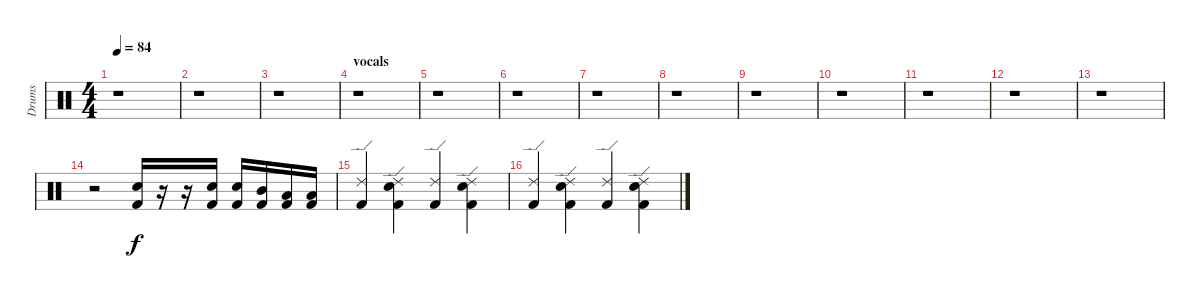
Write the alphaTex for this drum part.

\track ("Drums" "Drums") {instrument percussion}
\staff {score}
\articulation defaults
\ts (4 4)
\tempo 84
\clef neutral
\ks c
r.1{dy f} |
r.1 |
r.1 |
\section ("" "vocals")
r.1 |
r.1 |
r.1 |
r.1 |
r.1 |
r.1 |
r.1 |
r.1 |
r.1 |
r.1 |
r.2 ("Electric Snare (hit)" "Kick (hit) 2").16 r.16 r.16 ("Electric Snare (hit)" "Kick (hit) 2").16 ("Electric Snare (hit)" "Kick (hit) 2").16 ("Mid Tom (hit)" "Kick (hit) 2").16 ("Low Tom (hit)" "Kick (hit) 2").16 ("Low Tom (hit)" "Kick (hit) 2").16 |
("Ride (edge) 2" "Kick (hit) 2").4 ("Ride (edge) 2" "Electric Snare (hit)" "Kick (hit) 2").4 ("Ride (edge) 2" "Kick (hit) 2").4 ("Ride (edge) 2" "Electric Snare (hit)" "Kick (hit) 2").4 |
("Ride (edge) 2" "Kick (hit) 2").4 ("Ride (edge) 2" "Electric Snare (hit)" "Kick (hit) 2").4 ("Ride (edge) 2" "Kick (hit) 2").4 ("Ride (edge) 2" "Electric Snare (hit)" "Kick (hit) 2").4
